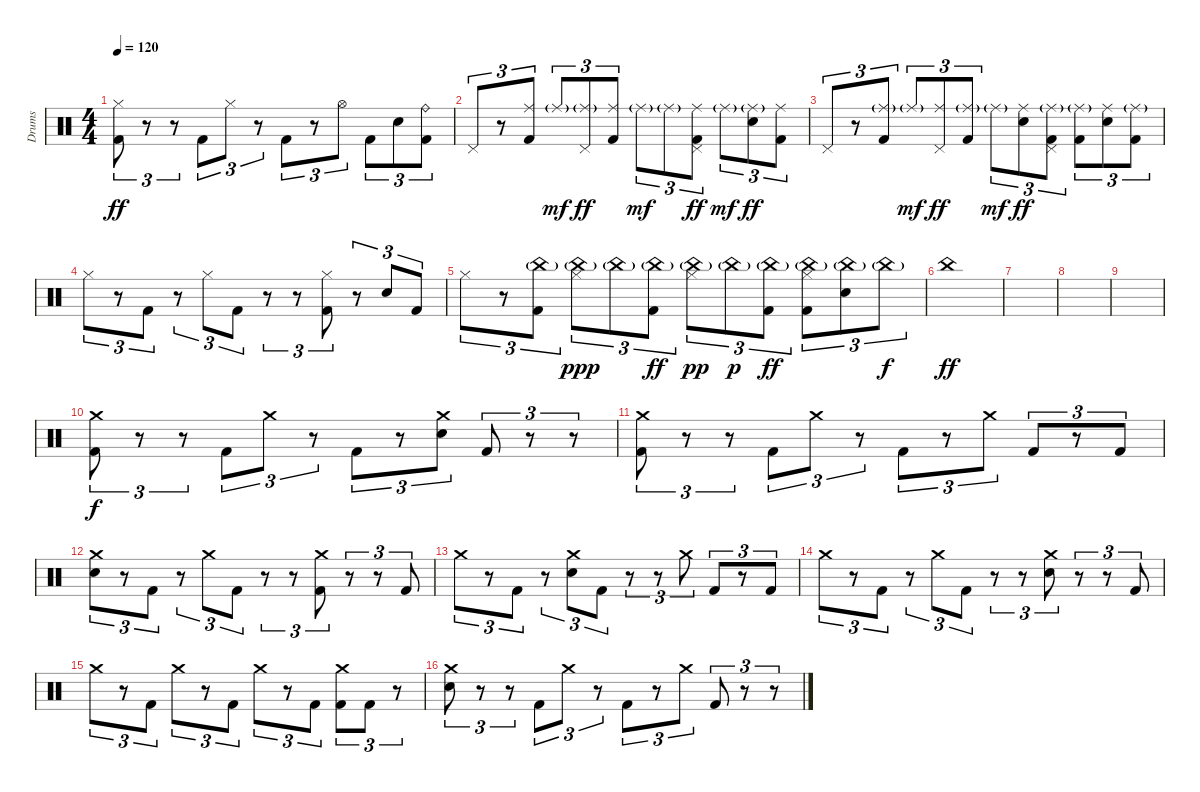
\track ("Drums" "Drums") {instrument percussion}
\staff {score}
\articulation defaults
\ts (4 4)
\tempo 120
\clef neutral
\ks c
("Hi-Hat (closed)" "Kick (hit) 2").8{tu (3 2) dy ff} r.8{tu (3 2)} r.8{tu (3 2)} "Kick (hit) 2".8{tu (3 2)} "Hi-Hat (closed)".8{tu (3 2)} r.8{tu (3 2)} "Kick (hit) 2".8{tu (3 2)} r.8{tu (3 2)} "Hi-Hat (open)".8{tu (3 2)} "Kick (hit) 2".8{tu (3 2)} "Electric Snare (hit)".8{tu (3 2)} ("Ride (bell)" "Kick (hit) 2").8{tu (3 2)} |
"Pedal Hi-Hat (hit)".8{tu (3 2)} r.8{tu (3 2)} ("Ride (middle)" "Kick (hit) 2").8{tu (3 2)} "Ride (middle)"{g}.8{tu (3 2) dy mf} ("Ride (middle)"{g} "Pedal Hi-Hat (hit)").8{tu (3 2) dy ff} ("Ride (middle)" "Kick (hit) 2").8{tu (3 2)} "Ride (middle)"{g}.8{tu (3 2) dy mf} "Ride (middle)"{g}.8{tu (3 2)} ("Ride (middle)" "Pedal Hi-Hat (hit)" "Kick (hit) 2").8{tu (3 2) dy ff} "Ride (middle)"{g}.8{tu (3 2) dy mf} ("Ride (middle)"{g} "Electric Snare (hit)").8{tu (3 2) dy ff} ("Ride (middle)" "Kick (hit) 2").8{tu (3 2)} |
"Pedal Hi-Hat (hit)".8{tu (3 2)} r.8{tu (3 2)} ("Ride (middle)"{g} "Kick (hit) 2").8{tu (3 2)} "Ride (middle)"{g}.8{tu (3 2) dy mf} ("Ride (middle)" "Pedal Hi-Hat (hit)").8{tu (3 2) dy ff} ("Ride (middle)"{g} "Kick (hit) 2").8{tu (3 2)} "Ride (middle)"{g}.8{tu (3 2) dy mf} ("Ride (middle)" "Electric Snare (hit)").8{tu (3 2) dy ff} ("Ride (middle)"{g} "Pedal Hi-Hat (hit)" "Kick (hit) 2").8{tu (3 2)} ("Ride (middle)"{g} "Kick (hit) 2").8{tu (3 2)} ("Ride (middle)" "Electric Snare (hit)").8{tu (3 2)} ("Ride (middle)"{g} "Kick (hit) 2").8{tu (3 2)} |
"Hi-Hat (closed)".8{tu (3 2)} r.8{tu (3 2)} "Kick (hit) 2".8{tu (3 2)} r.8{tu (3 2)} "Hi-Hat (closed)".8{tu (3 2)} "Kick (hit) 2".8{tu (3 2)} r.8{tu (3 2)} r.8{tu (3 2)} ("Hi-Hat (closed)" "Kick (hit) 2").8{tu (3 2)} r.8{tu (3 2)} "Electric Snare (hit)".8{tu (3 2)} "Kick (hit) 2".8{tu (3 2)} |
"Hi-Hat (closed)".8{tu (3 2)} r.8{tu (3 2)} ("China (hit)"{g} "Kick (hit) 2").8{tu (3 2)} ("China (hit)"{g} "Hi-Hat (closed)").8{tu (3 2) dy ppp} "China (hit)"{g}.8{tu (3 2)} ("China (hit)"{g} "Kick (hit) 2").8{tu (3 2) dy ff} ("China (hit)"{g} "Hi-Hat (closed)").8{tu (3 2) dy pp} "China (hit)"{g}.8{tu (3 2) dy p} ("China (hit)"{g} "Kick (hit) 2").8{tu (3 2) dy ff} ("China (hit)"{g} "Hi-Hat (closed)" "Kick (hit) 2").8{tu (3 2)} ("China (hit)"{g} "Electric Snare (hit)").8{tu (3 2)} "China (hit)"{g}.8{tu (3 2) dy f} |
\section ("" "")
"China (hit)".1{dy ff} |
|
|
|
\section ("" "")
("Crash medium (hit)" "Kick (hit) 2").8{tu (3 2) dy f} r.8{tu (3 2)} r.8{tu (3 2)} "Kick (hit) 2".8{tu (3 2)} "Crash medium (hit)".8{tu (3 2)} r.8{tu (3 2)} "Kick (hit) 2".8{tu (3 2)} r.8{tu (3 2)} ("Crash medium (hit)" "Electric Snare (hit)").8{tu (3 2)} "Kick (hit) 2".8{tu (3 2)} r.8{tu (3 2)} r.8{tu (3 2)} |
("Crash medium (hit)" "Kick (hit) 2").8{tu (3 2)} r.8{tu (3 2)} r.8{tu (3 2)} "Kick (hit) 2".8{tu (3 2)} "Crash medium (hit)".8{tu (3 2)} r.8{tu (3 2)} "Kick (hit) 2".8{tu (3 2)} r.8{tu (3 2)} "Crash medium (hit)".8{tu (3 2)} "Kick (hit) 2".8{tu (3 2)} r.8{tu (3 2)} "Kick (hit) 2".8{tu (3 2)} |
("Crash medium (hit)" "Electric Snare (hit)").8{tu (3 2)} r.8{tu (3 2)} "Kick (hit) 2".8{tu (3 2)} r.8{tu (3 2)} "Crash medium (hit)".8{tu (3 2)} "Kick (hit) 2".8{tu (3 2)} r.8{tu (3 2)} r.8{tu (3 2)} ("Crash medium (hit)" "Kick (hit) 2").8{tu (3 2)} r.8{tu (3 2)} r.8{tu (3 2)} "Kick (hit) 2".8{tu (3 2)} |
"Crash medium (hit)".8{tu (3 2)} r.8{tu (3 2)} "Kick (hit) 2".8{tu (3 2)} r.8{tu (3 2)} ("Crash medium (hit)" "Electric Snare (hit)").8{tu (3 2)} "Kick (hit) 2".8{tu (3 2)} r.8{tu (3 2)} r.8{tu (3 2)} "Crash medium (hit)".8{tu (3 2)} "Kick (hit) 2".8{tu (3 2)} r.8{tu (3 2)} "Kick (hit) 2".8{tu (3 2)} |
"Crash medium (hit)".8{tu (3 2)} r.8{tu (3 2)} "Kick (hit) 2".8{tu (3 2)} r.8{tu (3 2)} "Crash medium (hit)".8{tu (3 2)} "Kick (hit) 2".8{tu (3 2)} r.8{tu (3 2)} r.8{tu (3 2)} ("Crash medium (hit)" "Electric Snare (hit)").8{tu (3 2)} r.8{tu (3 2)} r.8{tu (3 2)} "Kick (hit) 2".8{tu (3 2)} |
"Crash medium (hit)".8{tu (3 2)} r.8{tu (3 2)} "Kick (hit) 2".8{tu (3 2)} "Crash medium (hit)".8{tu (3 2)} r.8{tu (3 2)} "Kick (hit) 2".8{tu (3 2)} "Crash medium (hit)".8{tu (3 2)} r.8{tu (3 2)} "Kick (hit) 2".8{tu (3 2)} ("Crash medium (hit)" "Kick (hit) 2").8{tu (3 2)} "Kick (hit) 2".8{tu (3 2)} r.8{tu (3 2)} |
("Crash medium (hit)" "Electric Snare (hit)").8{tu (3 2)} r.8{tu (3 2)} r.8{tu (3 2)} "Kick (hit) 2".8{tu (3 2)} "Crash medium (hit)".8{tu (3 2)} r.8{tu (3 2)} "Kick (hit) 2".8{tu (3 2)} r.8{tu (3 2)} "Crash medium (hit)".8{tu (3 2)} "Kick (hit) 2".8{tu (3 2)} r.8{tu (3 2)} r.8{tu (3 2)}
